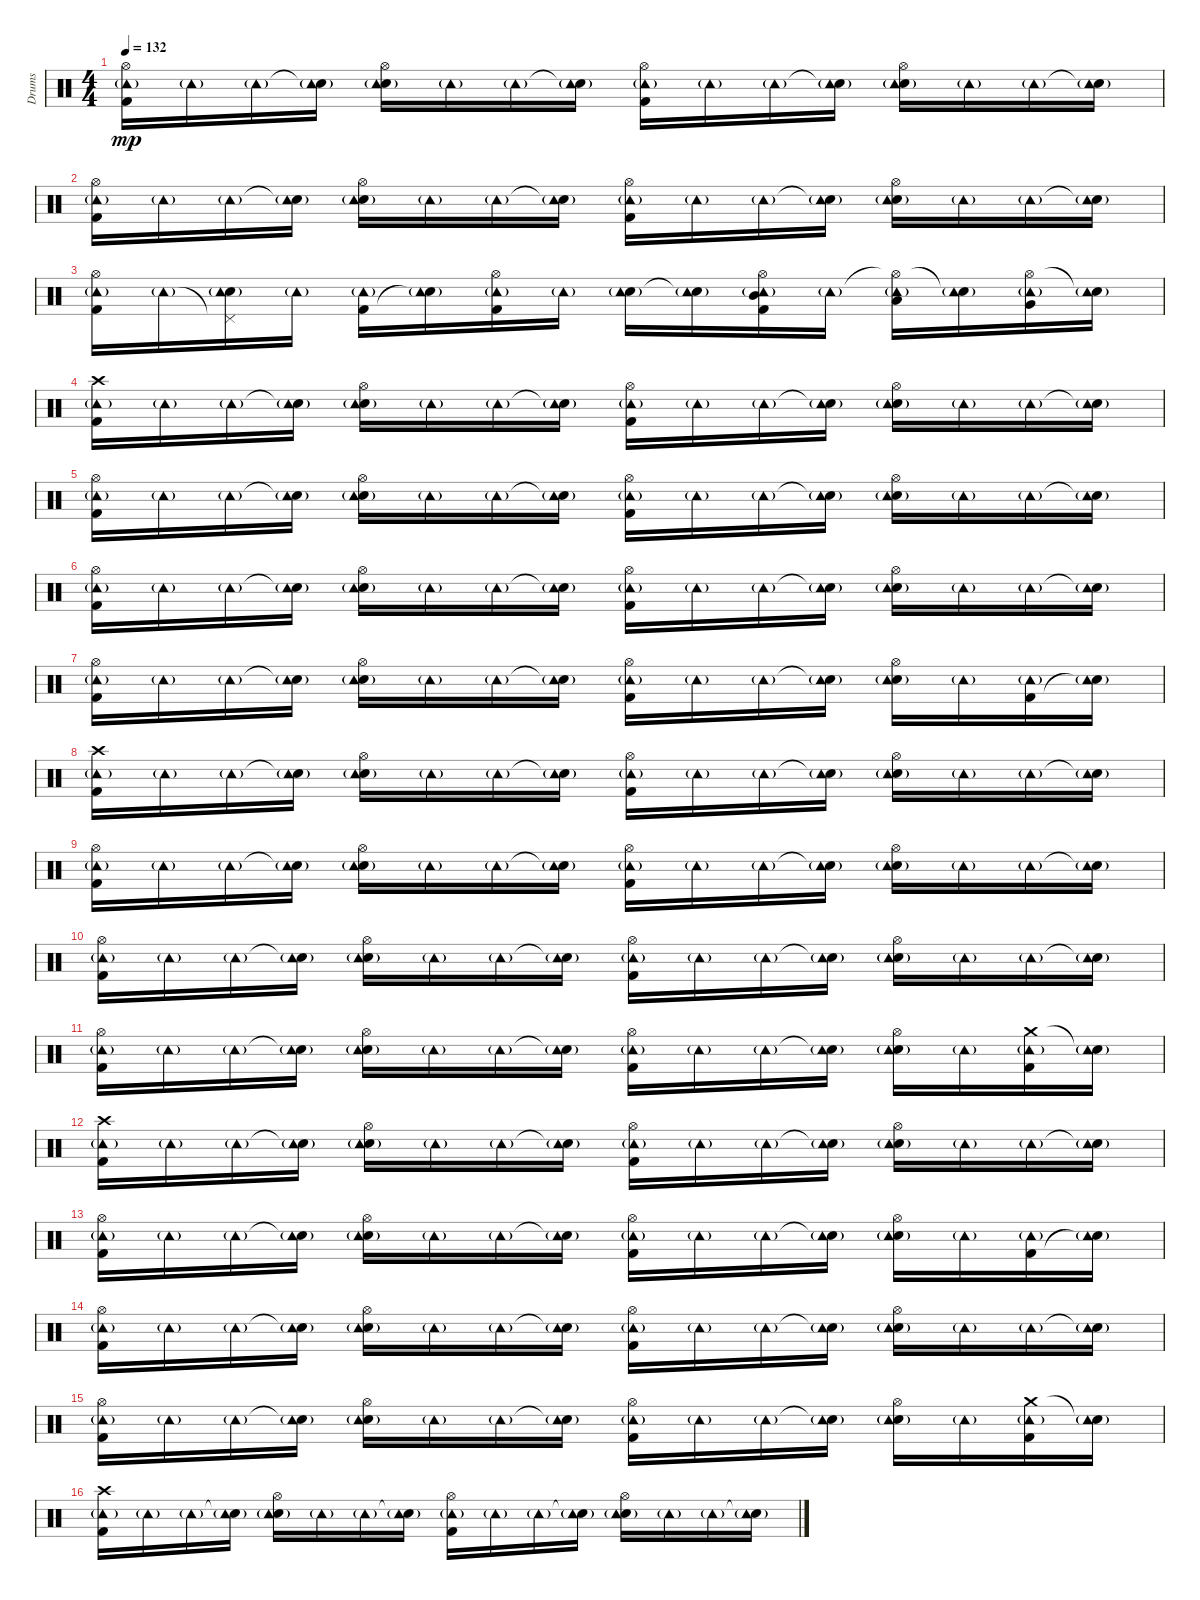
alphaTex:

\track ("Drums" "Drums") {instrument percussion}
\staff {score}
\articulation defaults
\ts (4 4)
\tempo 132
\clef neutral
\ks c
("Hi-Hat (open)" "Kick (hit) 2" "Tambourine (hit)"{g}).16{dy mp} "Tambourine (hit)"{g}.16 "Tambourine (hit)"{g}.16 ("Snare (hit)"{t} "Tambourine (hit)"{g}).16 ("Hi-Hat (open)" "Snare (hit) 2" "Tambourine (hit)"{g}).16 "Tambourine (hit)"{g}.16 "Tambourine (hit)"{g}.16 ("Snare (hit)"{t} "Tambourine (hit)"{g}).16 ("Hi-Hat (open)" "Kick (hit) 2" "Tambourine (hit)"{g}).16 "Tambourine (hit)"{g}.16 "Tambourine (hit)"{g}.16 ("Snare (hit)"{t} "Tambourine (hit)"{g}).16 ("Hi-Hat (open)" "Snare (hit) 2" "Tambourine (hit)"{g}).16 "Tambourine (hit)"{g}.16 "Tambourine (hit)"{g}.16 ("Snare (hit)"{t} "Tambourine (hit)"{g}).16 |
("Hi-Hat (open)" "Kick (hit) 2" "Tambourine (hit)"{g}).16 "Tambourine (hit)"{g}.16 "Tambourine (hit)"{g}.16 ("Snare (hit)"{t} "Tambourine (hit)"{g}).16 ("Hi-Hat (open)" "Snare (hit) 2" "Tambourine (hit)"{g}).16 "Tambourine (hit)"{g}.16 "Tambourine (hit)"{g}.16 ("Snare (hit)"{t} "Tambourine (hit)"{g}).16 ("Hi-Hat (open)" "Kick (hit) 2" "Tambourine (hit)"{g}).16 "Tambourine (hit)"{g}.16 "Tambourine (hit)"{g}.16 ("Snare (hit)"{t} "Tambourine (hit)"{g}).16 ("Hi-Hat (open)" "Snare (hit) 2" "Tambourine (hit)"{g}).16 "Tambourine (hit)"{g}.16 "Tambourine (hit)"{g}.16 ("Snare (hit)"{t} "Tambourine (hit)"{g}).16 |
("Hi-Hat (open)" "Kick (hit) 2" "Tambourine (hit)"{g}).16 "Tambourine (hit)"{g}.16 ("Pedal Hi-Hat (hit)"{t} "Snare (hit) 2" "Tambourine (hit)"{g}).16 "Tambourine (hit)"{g}.16 ("Kick (hit) 2" "Tambourine (hit)"{g}).16 ("Snare (hit)"{t} "Tambourine (hit)"{g}).16 ("Hi-Hat (open)" "Kick (hit) 2" "Tambourine (hit)"{g}).16 "Tambourine (hit)"{g}.16 ("Snare (hit) 2" "Tambourine (hit)"{g}).16 ("Snare (hit)"{t} "Tambourine (hit)"{g}).16 ("Hi-Hat (open)" "Mid Tom (hit)" "Kick (hit) 2" "Tambourine (hit)"{g}).16 "Tambourine (hit)"{g}.16 ("Hi-Hat (open)"{t} "Low Tom (hit)" "Tambourine (hit)"{g}).16 ("Snare (hit)"{t} "Tambourine (hit)"{g}).16 ("Hi-Hat (open)" "Very Low Tom (hit)" "Tambourine (hit)"{g}).16 ("Snare (hit)"{t} "Tambourine (hit)"{g}).16 |
("Crash high (hit)" "Kick (hit) 2" "Tambourine (hit)"{g}).16 "Tambourine (hit)"{g}.16 "Tambourine (hit)"{g}.16 ("Snare (hit)"{t} "Tambourine (hit)"{g}).16 ("Hi-Hat (open)" "Snare (hit) 2" "Tambourine (hit)"{g}).16 "Tambourine (hit)"{g}.16 "Tambourine (hit)"{g}.16 ("Snare (hit)"{t} "Tambourine (hit)"{g}).16 ("Hi-Hat (open)" "Kick (hit) 2" "Tambourine (hit)"{g}).16 "Tambourine (hit)"{g}.16 "Tambourine (hit)"{g}.16 ("Snare (hit)"{t} "Tambourine (hit)"{g}).16 ("Hi-Hat (open)" "Snare (hit) 2" "Tambourine (hit)"{g}).16 "Tambourine (hit)"{g}.16 "Tambourine (hit)"{g}.16 ("Snare (hit)"{t} "Tambourine (hit)"{g}).16 |
("Hi-Hat (open)" "Kick (hit) 2" "Tambourine (hit)"{g}).16 "Tambourine (hit)"{g}.16 "Tambourine (hit)"{g}.16 ("Snare (hit)"{t} "Tambourine (hit)"{g}).16 ("Hi-Hat (open)" "Snare (hit) 2" "Tambourine (hit)"{g}).16 "Tambourine (hit)"{g}.16 "Tambourine (hit)"{g}.16 ("Snare (hit)"{t} "Tambourine (hit)"{g}).16 ("Hi-Hat (open)" "Kick (hit) 2" "Tambourine (hit)"{g}).16 "Tambourine (hit)"{g}.16 "Tambourine (hit)"{g}.16 ("Snare (hit)"{t} "Tambourine (hit)"{g}).16 ("Hi-Hat (open)" "Snare (hit) 2" "Tambourine (hit)"{g}).16 "Tambourine (hit)"{g}.16 "Tambourine (hit)"{g}.16 ("Snare (hit)"{t} "Tambourine (hit)"{g}).16 |
("Hi-Hat (open)" "Kick (hit) 2" "Tambourine (hit)"{g}).16 "Tambourine (hit)"{g}.16 "Tambourine (hit)"{g}.16 ("Snare (hit)"{t} "Tambourine (hit)"{g}).16 ("Hi-Hat (open)" "Snare (hit) 2" "Tambourine (hit)"{g}).16 "Tambourine (hit)"{g}.16 "Tambourine (hit)"{g}.16 ("Snare (hit)"{t} "Tambourine (hit)"{g}).16 ("Hi-Hat (open)" "Kick (hit) 2" "Tambourine (hit)"{g}).16 "Tambourine (hit)"{g}.16 "Tambourine (hit)"{g}.16 ("Snare (hit)"{t} "Tambourine (hit)"{g}).16 ("Hi-Hat (open)" "Snare (hit) 2" "Tambourine (hit)"{g}).16 "Tambourine (hit)"{g}.16 "Tambourine (hit)"{g}.16 ("Snare (hit)"{t} "Tambourine (hit)"{g}).16 |
("Hi-Hat (open)" "Kick (hit) 2" "Tambourine (hit)"{g}).16 "Tambourine (hit)"{g}.16 "Tambourine (hit)"{g}.16 ("Snare (hit)"{t} "Tambourine (hit)"{g}).16 ("Hi-Hat (open)" "Snare (hit) 2" "Tambourine (hit)"{g}).16 "Tambourine (hit)"{g}.16 "Tambourine (hit)"{g}.16 ("Snare (hit)"{t} "Tambourine (hit)"{g}).16 ("Hi-Hat (open)" "Kick (hit) 2" "Tambourine (hit)"{g}).16 "Tambourine (hit)"{g}.16 "Tambourine (hit)"{g}.16 ("Snare (hit)"{t} "Tambourine (hit)"{g}).16 ("Hi-Hat (open)" "Snare (hit) 2" "Tambourine (hit)"{g}).16 "Tambourine (hit)"{g}.16 ("Kick (hit) 2" "Tambourine (hit)"{g}).16 ("Snare (hit)"{t} "Tambourine (hit)"{g}).16 |
("Crash high (hit)" "Kick (hit) 2" "Tambourine (hit)"{g}).16 "Tambourine (hit)"{g}.16 "Tambourine (hit)"{g}.16 ("Snare (hit)"{t} "Tambourine (hit)"{g}).16 ("Hi-Hat (open)" "Snare (hit) 2" "Tambourine (hit)"{g}).16 "Tambourine (hit)"{g}.16 "Tambourine (hit)"{g}.16 ("Snare (hit)"{t} "Tambourine (hit)"{g}).16 ("Hi-Hat (open)" "Kick (hit) 2" "Tambourine (hit)"{g}).16 "Tambourine (hit)"{g}.16 "Tambourine (hit)"{g}.16 ("Snare (hit)"{t} "Tambourine (hit)"{g}).16 ("Hi-Hat (open)" "Snare (hit) 2" "Tambourine (hit)"{g}).16 "Tambourine (hit)"{g}.16 "Tambourine (hit)"{g}.16 ("Snare (hit)"{t} "Tambourine (hit)"{g}).16 |
("Hi-Hat (open)" "Kick (hit) 2" "Tambourine (hit)"{g}).16 "Tambourine (hit)"{g}.16 "Tambourine (hit)"{g}.16 ("Snare (hit)"{t} "Tambourine (hit)"{g}).16 ("Hi-Hat (open)" "Snare (hit) 2" "Tambourine (hit)"{g}).16 "Tambourine (hit)"{g}.16 "Tambourine (hit)"{g}.16 ("Snare (hit)"{t} "Tambourine (hit)"{g}).16 ("Hi-Hat (open)" "Kick (hit) 2" "Tambourine (hit)"{g}).16 "Tambourine (hit)"{g}.16 "Tambourine (hit)"{g}.16 ("Snare (hit)"{t} "Tambourine (hit)"{g}).16 ("Hi-Hat (open)" "Snare (hit) 2" "Tambourine (hit)"{g}).16 "Tambourine (hit)"{g}.16 "Tambourine (hit)"{g}.16 ("Snare (hit)"{t} "Tambourine (hit)"{g}).16 |
("Hi-Hat (open)" "Kick (hit) 2" "Tambourine (hit)"{g}).16 "Tambourine (hit)"{g}.16 "Tambourine (hit)"{g}.16 ("Snare (hit)"{t} "Tambourine (hit)"{g}).16 ("Hi-Hat (open)" "Snare (hit) 2" "Tambourine (hit)"{g}).16 "Tambourine (hit)"{g}.16 "Tambourine (hit)"{g}.16 ("Snare (hit)"{t} "Tambourine (hit)"{g}).16 ("Hi-Hat (open)" "Kick (hit) 2" "Tambourine (hit)"{g}).16 "Tambourine (hit)"{g}.16 "Tambourine (hit)"{g}.16 ("Snare (hit)"{t} "Tambourine (hit)"{g}).16 ("Hi-Hat (open)" "Snare (hit) 2" "Tambourine (hit)"{g}).16 "Tambourine (hit)"{g}.16 "Tambourine (hit)"{g}.16 ("Snare (hit)"{t} "Tambourine (hit)"{g}).16 |
("Hi-Hat (open)" "Kick (hit) 2" "Tambourine (hit)"{g}).16 "Tambourine (hit)"{g}.16 "Tambourine (hit)"{g}.16 ("Snare (hit)"{t} "Tambourine (hit)"{g}).16 ("Hi-Hat (open)" "Snare (hit) 2" "Tambourine (hit)"{g}).16 "Tambourine (hit)"{g}.16 "Tambourine (hit)"{g}.16 ("Snare (hit)"{t} "Tambourine (hit)"{g}).16 ("Hi-Hat (open)" "Kick (hit) 2" "Tambourine (hit)"{g}).16 "Tambourine (hit)"{g}.16 "Tambourine (hit)"{g}.16 ("Snare (hit)"{t} "Tambourine (hit)"{g}).16 ("Hi-Hat (open)" "Snare (hit) 2" "Tambourine (hit)"{g}).16 "Tambourine (hit)"{g}.16 ("Crash medium (hit)" "Kick (hit) 2" "Tambourine (hit)"{g}).16 ("Snare (hit)"{t} "Tambourine (hit)"{g}).16 |
("Crash high (hit)" "Kick (hit) 2" "Tambourine (hit)"{g}).16 "Tambourine (hit)"{g}.16 "Tambourine (hit)"{g}.16 ("Snare (hit)"{t} "Tambourine (hit)"{g}).16 ("Hi-Hat (open)" "Snare (hit) 2" "Tambourine (hit)"{g}).16 "Tambourine (hit)"{g}.16 "Tambourine (hit)"{g}.16 ("Snare (hit)"{t} "Tambourine (hit)"{g}).16 ("Hi-Hat (open)" "Kick (hit) 2" "Tambourine (hit)"{g}).16 "Tambourine (hit)"{g}.16 "Tambourine (hit)"{g}.16 ("Snare (hit)"{t} "Tambourine (hit)"{g}).16 ("Hi-Hat (open)" "Snare (hit) 2" "Tambourine (hit)"{g}).16 "Tambourine (hit)"{g}.16 "Tambourine (hit)"{g}.16 ("Snare (hit)"{t} "Tambourine (hit)"{g}).16 |
("Hi-Hat (open)" "Kick (hit) 2" "Tambourine (hit)"{g}).16 "Tambourine (hit)"{g}.16 "Tambourine (hit)"{g}.16 ("Snare (hit)"{t} "Tambourine (hit)"{g}).16 ("Hi-Hat (open)" "Snare (hit) 2" "Tambourine (hit)"{g}).16 "Tambourine (hit)"{g}.16 "Tambourine (hit)"{g}.16 ("Snare (hit)"{t} "Tambourine (hit)"{g}).16 ("Hi-Hat (open)" "Kick (hit) 2" "Tambourine (hit)"{g}).16 "Tambourine (hit)"{g}.16 "Tambourine (hit)"{g}.16 ("Snare (hit)"{t} "Tambourine (hit)"{g}).16 ("Hi-Hat (open)" "Snare (hit) 2" "Tambourine (hit)"{g}).16 "Tambourine (hit)"{g}.16 ("Kick (hit) 2" "Tambourine (hit)"{g}).16 ("Snare (hit)"{t} "Tambourine (hit)"{g}).16 |
("Hi-Hat (open)" "Kick (hit) 2" "Tambourine (hit)"{g}).16 "Tambourine (hit)"{g}.16 "Tambourine (hit)"{g}.16 ("Snare (hit)"{t} "Tambourine (hit)"{g}).16 ("Hi-Hat (open)" "Snare (hit) 2" "Tambourine (hit)"{g}).16 "Tambourine (hit)"{g}.16 "Tambourine (hit)"{g}.16 ("Snare (hit)"{t} "Tambourine (hit)"{g}).16 ("Hi-Hat (open)" "Kick (hit) 2" "Tambourine (hit)"{g}).16 "Tambourine (hit)"{g}.16 "Tambourine (hit)"{g}.16 ("Snare (hit)"{t} "Tambourine (hit)"{g}).16 ("Hi-Hat (open)" "Snare (hit) 2" "Tambourine (hit)"{g}).16 "Tambourine (hit)"{g}.16 "Tambourine (hit)"{g}.16 ("Snare (hit)"{t} "Tambourine (hit)"{g}).16 |
("Hi-Hat (open)" "Kick (hit) 2" "Tambourine (hit)"{g}).16 "Tambourine (hit)"{g}.16 "Tambourine (hit)"{g}.16 ("Snare (hit)"{t} "Tambourine (hit)"{g}).16 ("Hi-Hat (open)" "Snare (hit) 2" "Tambourine (hit)"{g}).16 "Tambourine (hit)"{g}.16 "Tambourine (hit)"{g}.16 ("Snare (hit)"{t} "Tambourine (hit)"{g}).16 ("Hi-Hat (open)" "Kick (hit) 2" "Tambourine (hit)"{g}).16 "Tambourine (hit)"{g}.16 "Tambourine (hit)"{g}.16 ("Snare (hit)"{t} "Tambourine (hit)"{g}).16 ("Hi-Hat (open)" "Snare (hit) 2" "Tambourine (hit)"{g}).16 "Tambourine (hit)"{g}.16 ("Crash medium (hit)" "Kick (hit) 2" "Tambourine (hit)"{g}).16 ("Snare (hit)"{t} "Tambourine (hit)"{g}).16 |
("Crash high (hit)" "Kick (hit) 2" "Tambourine (hit)"{g}).16 "Tambourine (hit)"{g}.16 "Tambourine (hit)"{g}.16 ("Snare (hit)"{t} "Tambourine (hit)"{g}).16 ("Hi-Hat (open)" "Snare (hit) 2" "Tambourine (hit)"{g}).16 "Tambourine (hit)"{g}.16 "Tambourine (hit)"{g}.16 ("Snare (hit)"{t} "Tambourine (hit)"{g}).16 ("Hi-Hat (open)" "Kick (hit) 2" "Tambourine (hit)"{g}).16 "Tambourine (hit)"{g}.16 "Tambourine (hit)"{g}.16 ("Snare (hit)"{t} "Tambourine (hit)"{g}).16 ("Hi-Hat (open)" "Snare (hit) 2" "Tambourine (hit)"{g}).16 "Tambourine (hit)"{g}.16 "Tambourine (hit)"{g}.16 ("Snare (hit)"{t} "Tambourine (hit)"{g}).16
